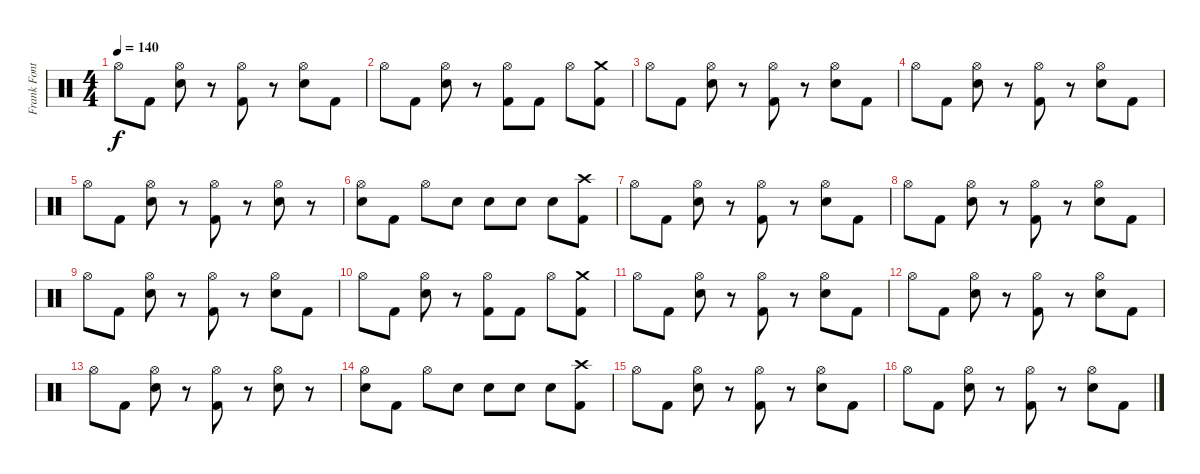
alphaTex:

\track ("Frank Fontsere" "Frank Font") {instrument percussion}
\staff {score}
\articulation defaults
\ts (4 4)
\tempo 140
\clef neutral
\ks c "Hi-Hat (open)".8{dy f} "Kick (hit) 2".8
("Hi-Hat (open)" "Electric Snare (hit)").8 r.8 ("Hi-Hat (open)" "Kick (hit) 2").8 r.8 ("Hi-Hat (open)" "Electric Snare (hit)").8 "Kick (hit) 2".8 |
"Hi-Hat (open)".8 "Kick (hit) 2".8 ("Hi-Hat (open)" "Electric Snare (hit)").8 r.8 ("Hi-Hat (open)" "Kick (hit) 2").8 "Kick (hit) 2".8 "Hi-Hat (open)".8 ("Crash medium (hit)" "Kick (hit) 2").8 |
"Hi-Hat (open)".8 "Kick (hit) 2".8 ("Hi-Hat (open)" "Electric Snare (hit)").8 r.8 ("Hi-Hat (open)" "Kick (hit) 2").8 r.8 ("Hi-Hat (open)" "Electric Snare (hit)").8 "Kick (hit) 2".8 |
"Hi-Hat (open)".8 "Kick (hit) 2".8 ("Hi-Hat (open)" "Electric Snare (hit)").8 r.8 ("Hi-Hat (open)" "Kick (hit) 2").8 r.8 ("Hi-Hat (open)" "Electric Snare (hit)").8 "Kick (hit) 2".8 |
"Hi-Hat (open)".8 "Kick (hit) 2".8 ("Hi-Hat (open)" "Electric Snare (hit)").8 r.8 ("Hi-Hat (open)" "Kick (hit) 2").8 r.8 ("Hi-Hat (open)" "Electric Snare (hit)").8 r.8 |
("Hi-Hat (open)" "Electric Snare (hit)").8 "Kick (hit) 2".8 "Hi-Hat (open)".8 "Electric Snare (hit)".8 "Electric Snare (hit)".8 "Electric Snare (hit)".8 "Electric Snare (hit)".8 ("Crash high (hit)" "Kick (hit) 2").8 |
"Hi-Hat (open)".8 "Kick (hit) 2".8 ("Hi-Hat (open)" "Electric Snare (hit)").8 r.8 ("Hi-Hat (open)" "Kick (hit) 2").8 r.8 ("Hi-Hat (open)" "Electric Snare (hit)").8 "Kick (hit) 2".8 |
"Hi-Hat (open)".8 "Kick (hit) 2".8 ("Hi-Hat (open)" "Electric Snare (hit)").8 r.8 ("Hi-Hat (open)" "Kick (hit) 2").8 r.8 ("Hi-Hat (open)" "Electric Snare (hit)").8 "Kick (hit) 2".8 |
"Hi-Hat (open)".8 "Kick (hit) 2".8 ("Hi-Hat (open)" "Electric Snare (hit)").8 r.8 ("Hi-Hat (open)" "Kick (hit) 2").8 r.8 ("Hi-Hat (open)" "Electric Snare (hit)").8 "Kick (hit) 2".8 |
"Hi-Hat (open)".8 "Kick (hit) 2".8 ("Hi-Hat (open)" "Electric Snare (hit)").8 r.8 ("Hi-Hat (open)" "Kick (hit) 2").8 "Kick (hit) 2".8 "Hi-Hat (open)".8 ("Crash medium (hit)" "Kick (hit) 2").8 |
"Hi-Hat (open)".8 "Kick (hit) 2".8 ("Hi-Hat (open)" "Electric Snare (hit)").8 r.8 ("Hi-Hat (open)" "Kick (hit) 2").8 r.8 ("Hi-Hat (open)" "Electric Snare (hit)").8 "Kick (hit) 2".8 |
"Hi-Hat (open)".8 "Kick (hit) 2".8 ("Hi-Hat (open)" "Electric Snare (hit)").8 r.8 ("Hi-Hat (open)" "Kick (hit) 2").8 r.8 ("Hi-Hat (open)" "Electric Snare (hit)").8 "Kick (hit) 2".8 |
"Hi-Hat (open)".8 "Kick (hit) 2".8 ("Hi-Hat (open)" "Electric Snare (hit)").8 r.8 ("Hi-Hat (open)" "Kick (hit) 2").8 r.8 ("Hi-Hat (open)" "Electric Snare (hit)").8 r.8 |
("Hi-Hat (open)" "Electric Snare (hit)").8 "Kick (hit) 2".8 "Hi-Hat (open)".8 "Electric Snare (hit)".8 "Electric Snare (hit)".8 "Electric Snare (hit)".8 "Electric Snare (hit)".8 ("Crash high (hit)" "Kick (hit) 2").8 |
"Hi-Hat (open)".8 "Kick (hit) 2".8 ("Hi-Hat (open)" "Electric Snare (hit)").8 r.8 ("Hi-Hat (open)" "Kick (hit) 2").8 r.8 ("Hi-Hat (open)" "Electric Snare (hit)").8 "Kick (hit) 2".8 |
"Hi-Hat (open)".8 "Kick (hit) 2".8 ("Hi-Hat (open)" "Electric Snare (hit)").8 r.8 ("Hi-Hat (open)" "Kick (hit) 2").8 r.8 ("Hi-Hat (open)" "Electric Snare (hit)").8 "Kick (hit) 2".8
